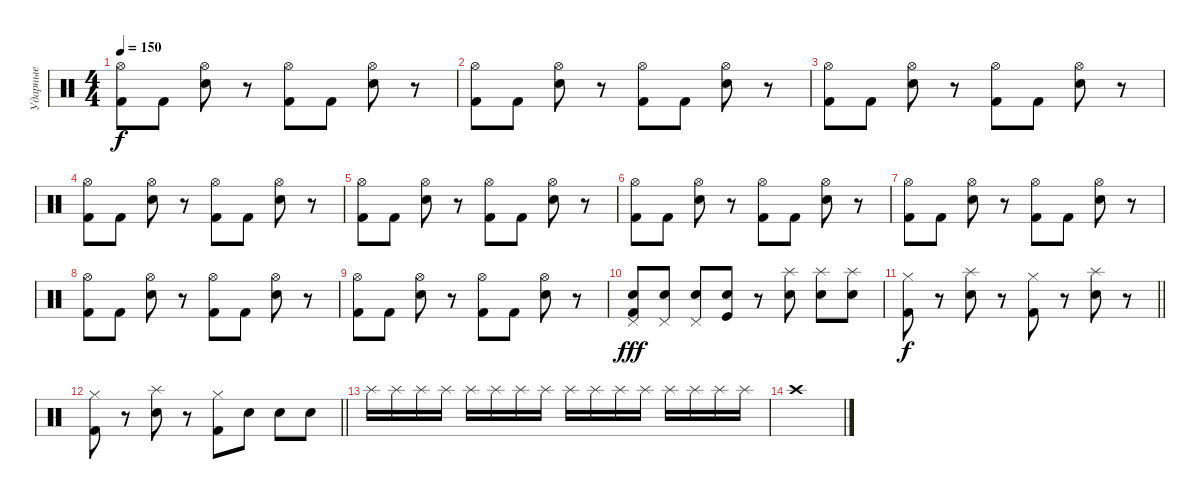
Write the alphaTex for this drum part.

\track ("Ударные" "Ударные") {instrument percussion}
\staff {score}
\articulation defaults
\ts (4 4)
\tempo 150
\clef neutral
\ks c
("Kick (hit) 2" "Hi-Hat (open)").8{dy f} "Kick (hit) 2".8 ("Snare (hit) 2" "Hi-Hat (open)").8 r.8 ("Kick (hit) 2" "Hi-Hat (open)").8 "Kick (hit) 2".8 ("Snare (hit) 2" "Hi-Hat (open)").8 r.8 |
("Kick (hit) 2" "Hi-Hat (open)").8 "Kick (hit) 2".8 ("Snare (hit) 2" "Hi-Hat (open)").8 r.8 ("Kick (hit) 2" "Hi-Hat (open)").8 "Kick (hit) 2".8 ("Snare (hit) 2" "Hi-Hat (open)").8 r.8 |
("Kick (hit) 2" "Hi-Hat (open)").8 "Kick (hit) 2".8 ("Snare (hit) 2" "Hi-Hat (open)").8 r.8 ("Kick (hit) 2" "Hi-Hat (open)").8 "Kick (hit) 2".8 ("Snare (hit) 2" "Hi-Hat (open)").8 r.8 |
("Kick (hit) 2" "Hi-Hat (open)").8 "Kick (hit) 2".8 ("Snare (hit) 2" "Hi-Hat (open)").8 r.8 ("Kick (hit) 2" "Hi-Hat (open)").8 "Kick (hit) 2".8 ("Snare (hit) 2" "Hi-Hat (open)").8 r.8 |
("Kick (hit) 2" "Hi-Hat (open)").8 "Kick (hit) 2".8 ("Snare (hit) 2" "Hi-Hat (open)").8 r.8 ("Kick (hit) 2" "Hi-Hat (open)").8 "Kick (hit) 2".8 ("Snare (hit) 2" "Hi-Hat (open)").8 r.8 |
("Kick (hit) 2" "Hi-Hat (open)").8 "Kick (hit) 2".8 ("Snare (hit) 2" "Hi-Hat (open)").8 r.8 ("Kick (hit) 2" "Hi-Hat (open)").8 "Kick (hit) 2".8 ("Snare (hit) 2" "Hi-Hat (open)").8 r.8 |
("Kick (hit) 2" "Hi-Hat (open)").8 "Kick (hit) 2".8 ("Snare (hit) 2" "Hi-Hat (open)").8 r.8 ("Kick (hit) 2" "Hi-Hat (open)").8 "Kick (hit) 2".8 ("Snare (hit) 2" "Hi-Hat (open)").8 r.8 |
("Kick (hit) 2" "Hi-Hat (open)").8 "Kick (hit) 2".8 ("Snare (hit) 2" "Hi-Hat (open)").8 r.8 ("Kick (hit) 2" "Hi-Hat (open)").8 "Kick (hit) 2".8 ("Snare (hit) 2" "Hi-Hat (open)").8 r.8 |
("Kick (hit) 2" "Hi-Hat (open)").8 "Kick (hit) 2".8 ("Snare (hit) 2" "Hi-Hat (open)").8 r.8 ("Kick (hit) 2" "Hi-Hat (open)").8 "Kick (hit) 2".8 ("Snare (hit) 2" "Hi-Hat (open)").8 r.8 |
("Pedal Hi-Hat (hit)" "Kick (hit) 2" "Snare (hit) 2").8{dy fff} ("Pedal Hi-Hat (hit)" "Snare (hit) 2").8 ("Pedal Hi-Hat (hit)" "Snare (hit) 2").8 ("Kick (hit)" "Snare (hit) 2").8 r.8 ("Splash (hit)" "Snare (hit) 2").8 ("Splash (hit)" "Snare (hit) 2").8 ("Splash (hit)" "Snare (hit) 2").8 |
\barLineRight lightlight
("Kick (hit) 2" "Hi-Hat (closed)").8{dy f} r.8 ("Electric Snare (hit)" "Splash (hit)").8 r.8 ("Kick (hit) 2" "Hi-Hat (closed)").8 r.8 ("Electric Snare (hit)" "Splash (hit)").8 r.8 |
\barLineRight lightlight
("Kick (hit) 2" "Hi-Hat (closed)").8 r.8 ("Electric Snare (hit)" "Splash (hit)").8 r.8 ("Kick (hit) 2" "Hi-Hat (closed)").8 "Snare (hit) 2".8 "Snare (hit) 2".8 "Snare (hit) 2".8 |
"Splash (hit)".16 "Splash (hit)".16 "Splash (hit)".16 "Splash (hit)".16 "Splash (hit)".16 "Splash (hit)".16 "Splash (hit)".16 "Splash (hit)".16 "Splash (hit)".16 "Splash (hit)".16 "Splash (hit)".16 "Splash (hit)".16 "Splash (hit)".16 "Splash (hit)".16 "Splash (hit)".16 "Splash (hit)".16 |
"Crash high (hit)".1
